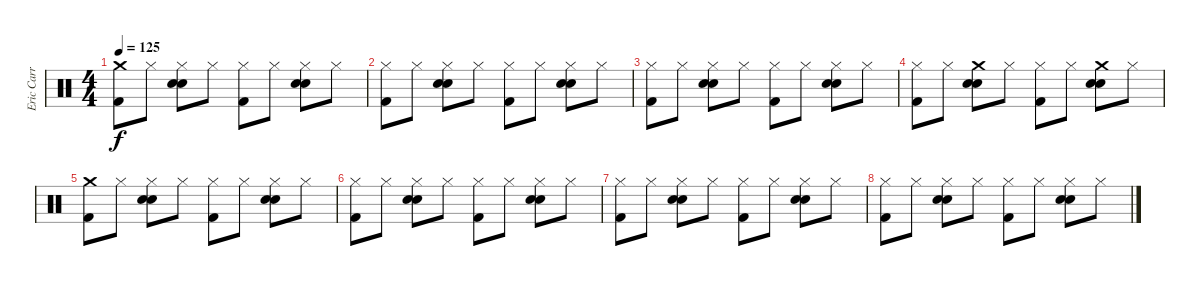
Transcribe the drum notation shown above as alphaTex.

\track ("Eric Carr" "Eric Carr") {instrument percussion}
\staff {score}
\articulation defaults
\ts (4 4)
\tempo 125
\clef neutral
\ks c
("Crash medium (hit)" "Kick (hit) 2").8{dy f} "Hi-Hat (closed)".8 ("Hi-Hat (closed)" "Electric Snare (hit)" "Snare (hit) 2").8 "Hi-Hat (closed)".8 ("Hi-Hat (closed)" "Kick (hit) 2").8 "Hi-Hat (closed)".8 ("Hi-Hat (closed)" "Snare (hit) 2" "Electric Snare (hit)").8 "Hi-Hat (closed)".8 |
("Hi-Hat (closed)" "Kick (hit) 2").8 "Hi-Hat (closed)".8 ("Hi-Hat (closed)" "Electric Snare (hit)" "Snare (hit) 2").8 "Hi-Hat (closed)".8 ("Hi-Hat (closed)" "Kick (hit) 2").8 "Hi-Hat (closed)".8 ("Hi-Hat (closed)" "Snare (hit) 2" "Electric Snare (hit)").8 "Hi-Hat (closed)".8 |
("Hi-Hat (closed)" "Kick (hit) 2").8 "Hi-Hat (closed)".8 ("Hi-Hat (closed)" "Electric Snare (hit)" "Snare (hit) 2").8 "Hi-Hat (closed)".8 ("Hi-Hat (closed)" "Kick (hit) 2").8 "Hi-Hat (closed)".8 ("Hi-Hat (closed)" "Snare (hit) 2" "Electric Snare (hit)").8 "Hi-Hat (closed)".8 |
("Hi-Hat (closed)" "Kick (hit) 2").8 "Hi-Hat (closed)".8 ("Crash medium (hit)" "Electric Snare (hit)" "Snare (hit) 2").8 "Hi-Hat (closed)".8 ("Hi-Hat (closed)" "Kick (hit) 2").8 "Hi-Hat (closed)".8 ("Crash medium (hit)" "Snare (hit) 2" "Electric Snare (hit)").8 "Hi-Hat (closed)".8 |
("Crash medium (hit)" "Kick (hit) 2").8 "Hi-Hat (closed)".8 ("Hi-Hat (closed)" "Electric Snare (hit)" "Snare (hit) 2").8 "Hi-Hat (closed)".8 ("Hi-Hat (closed)" "Kick (hit) 2").8 "Hi-Hat (closed)".8 ("Hi-Hat (closed)" "Snare (hit) 2" "Electric Snare (hit)").8 "Hi-Hat (closed)".8 |
("Hi-Hat (closed)" "Kick (hit) 2").8 "Hi-Hat (closed)".8 ("Hi-Hat (closed)" "Electric Snare (hit)" "Snare (hit) 2").8 "Hi-Hat (closed)".8 ("Hi-Hat (closed)" "Kick (hit) 2").8 "Hi-Hat (closed)".8 ("Hi-Hat (closed)" "Snare (hit) 2" "Electric Snare (hit)").8 "Hi-Hat (closed)".8 |
("Hi-Hat (closed)" "Kick (hit) 2").8 "Hi-Hat (closed)".8 ("Hi-Hat (closed)" "Electric Snare (hit)" "Snare (hit) 2").8 "Hi-Hat (closed)".8 ("Hi-Hat (closed)" "Kick (hit) 2").8 "Hi-Hat (closed)".8 ("Hi-Hat (closed)" "Snare (hit) 2" "Electric Snare (hit)").8 "Hi-Hat (closed)".8 |
("Hi-Hat (closed)" "Kick (hit) 2").8 "Hi-Hat (closed)".8 ("Hi-Hat (closed)" "Electric Snare (hit)" "Snare (hit) 2").8 "Hi-Hat (closed)".8 ("Hi-Hat (closed)" "Kick (hit) 2").8 "Hi-Hat (closed)".8 ("Hi-Hat (closed)" "Snare (hit) 2" "Electric Snare (hit)").8 "Hi-Hat (closed)".8
